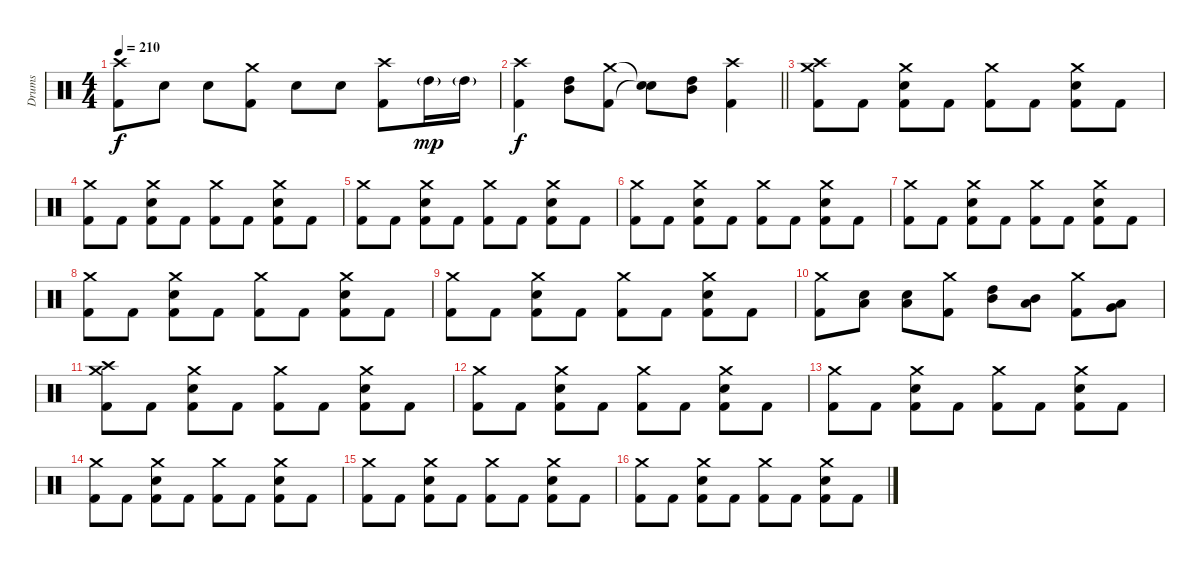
\track ("Drums" "Drums") {instrument percussion}
\staff {score}
\articulation defaults
\ts (4 4)
\tempo 210
\clef neutral
\ks c
("Crash high (hit)" "Kick (hit) 2").8{dy f} "Electric Snare (hit)".8 "Electric Snare (hit)".8 ("Crash medium (hit)" "Kick (hit) 2").8 "Electric Snare (hit)".8 "Electric Snare (hit)".8 ("Crash high (hit)" "Kick (hit) 2").8 "High Tom (hit)"{g}.16{dy mp} "High Tom (hit)"{g}.16 |
\barLineRight lightlight
("Crash high (hit)" "Kick (hit) 2").4{dy f} ("High Tom (hit)" "Mid Tom (hit)").8 ("Crash medium (hit)" "Kick (hit) 2").8 ("Snare (hit)"{t} "Snare (hit)"{t}).8 ("High Tom (hit)" "Mid Tom (hit)").8 ("Crash high (hit)" "Kick (hit) 2").4 |
("Crash medium (hit)" "Crash high (hit)" "Kick (hit) 2").8 "Kick (hit) 2".8 ("Crash medium (hit)" "Electric Snare (hit)" "Kick (hit) 2").8 "Kick (hit) 2".8 ("Crash medium (hit)" "Kick (hit) 2").8 "Kick (hit) 2".8 ("Crash medium (hit)" "Electric Snare (hit)" "Kick (hit) 2").8 "Kick (hit) 2".8 |
("Crash medium (hit)" "Kick (hit) 2").8 "Kick (hit) 2".8 ("Crash medium (hit)" "Electric Snare (hit)" "Kick (hit) 2").8 "Kick (hit) 2".8 ("Crash medium (hit)" "Kick (hit) 2").8 "Kick (hit) 2".8 ("Crash medium (hit)" "Electric Snare (hit)" "Kick (hit) 2").8 "Kick (hit) 2".8 |
("Crash medium (hit)" "Kick (hit) 2").8 "Kick (hit) 2".8 ("Crash medium (hit)" "Electric Snare (hit)" "Kick (hit) 2").8 "Kick (hit) 2".8 ("Crash medium (hit)" "Kick (hit) 2").8 "Kick (hit) 2".8 ("Crash medium (hit)" "Electric Snare (hit)" "Kick (hit) 2").8 "Kick (hit) 2".8 |
("Crash medium (hit)" "Kick (hit) 2").8 "Kick (hit) 2".8 ("Crash medium (hit)" "Electric Snare (hit)" "Kick (hit) 2").8 "Kick (hit) 2".8 ("Crash medium (hit)" "Kick (hit) 2").8 "Kick (hit) 2".8 ("Crash medium (hit)" "Electric Snare (hit)" "Kick (hit) 2").8 "Kick (hit) 2".8 |
("Crash medium (hit)" "Kick (hit) 2").8 "Kick (hit) 2".8 ("Crash medium (hit)" "Electric Snare (hit)" "Kick (hit) 2").8 "Kick (hit) 2".8 ("Crash medium (hit)" "Kick (hit) 2").8 "Kick (hit) 2".8 ("Crash medium (hit)" "Electric Snare (hit)" "Kick (hit) 2").8 "Kick (hit) 2".8 |
("Crash medium (hit)" "Kick (hit) 2").8 "Kick (hit) 2".8 ("Crash medium (hit)" "Electric Snare (hit)" "Kick (hit) 2").8 "Kick (hit) 2".8 ("Crash medium (hit)" "Kick (hit) 2").8 "Kick (hit) 2".8 ("Crash medium (hit)" "Electric Snare (hit)" "Kick (hit) 2").8 "Kick (hit) 2".8 |
("Crash medium (hit)" "Kick (hit) 2").8 "Kick (hit) 2".8 ("Crash medium (hit)" "Electric Snare (hit)" "Kick (hit) 2").8 "Kick (hit) 2".8 ("Crash medium (hit)" "Kick (hit) 2").8 "Kick (hit) 2".8 ("Crash medium (hit)" "Electric Snare (hit)" "Kick (hit) 2").8 "Kick (hit) 2".8 |
("Crash medium (hit)" "Kick (hit) 2").8 ("Low Tom (hit)" "Electric Snare (hit)").8 ("Low Tom (hit)" "Electric Snare (hit)").8 ("Crash medium (hit)" "Kick (hit) 2").8 ("High Tom (hit)" "Mid Tom (hit)").8 ("Mid Tom (hit)" "Low Tom (hit)").8 ("Crash medium (hit)" "Kick (hit) 2").8 ("Low Tom (hit)" "Very Low Tom (hit)").8 |
("Crash medium (hit)" "Crash high (hit)" "Kick (hit) 2").8 "Kick (hit) 2".8 ("Crash medium (hit)" "Electric Snare (hit)" "Kick (hit) 2").8 "Kick (hit) 2".8 ("Crash medium (hit)" "Kick (hit) 2").8 "Kick (hit) 2".8 ("Crash medium (hit)" "Electric Snare (hit)" "Kick (hit) 2").8 "Kick (hit) 2".8 |
("Crash medium (hit)" "Kick (hit) 2").8 "Kick (hit) 2".8 ("Crash medium (hit)" "Electric Snare (hit)" "Kick (hit) 2").8 "Kick (hit) 2".8 ("Crash medium (hit)" "Kick (hit) 2").8 "Kick (hit) 2".8 ("Crash medium (hit)" "Electric Snare (hit)" "Kick (hit) 2").8 "Kick (hit) 2".8 |
("Crash medium (hit)" "Kick (hit) 2").8 "Kick (hit) 2".8 ("Crash medium (hit)" "Electric Snare (hit)" "Kick (hit) 2").8 "Kick (hit) 2".8 ("Crash medium (hit)" "Kick (hit) 2").8 "Kick (hit) 2".8 ("Crash medium (hit)" "Electric Snare (hit)" "Kick (hit) 2").8 "Kick (hit) 2".8 |
("Crash medium (hit)" "Kick (hit) 2").8 "Kick (hit) 2".8 ("Crash medium (hit)" "Electric Snare (hit)" "Kick (hit) 2").8 "Kick (hit) 2".8 ("Crash medium (hit)" "Kick (hit) 2").8 "Kick (hit) 2".8 ("Crash medium (hit)" "Electric Snare (hit)" "Kick (hit) 2").8 "Kick (hit) 2".8 |
("Crash medium (hit)" "Kick (hit) 2").8 "Kick (hit) 2".8 ("Crash medium (hit)" "Electric Snare (hit)" "Kick (hit) 2").8 "Kick (hit) 2".8 ("Crash medium (hit)" "Kick (hit) 2").8 "Kick (hit) 2".8 ("Crash medium (hit)" "Electric Snare (hit)" "Kick (hit) 2").8 "Kick (hit) 2".8 |
("Crash medium (hit)" "Kick (hit) 2").8 "Kick (hit) 2".8 ("Crash medium (hit)" "Electric Snare (hit)" "Kick (hit) 2").8 "Kick (hit) 2".8 ("Crash medium (hit)" "Kick (hit) 2").8 "Kick (hit) 2".8 ("Crash medium (hit)" "Electric Snare (hit)" "Kick (hit) 2").8 "Kick (hit) 2".8
